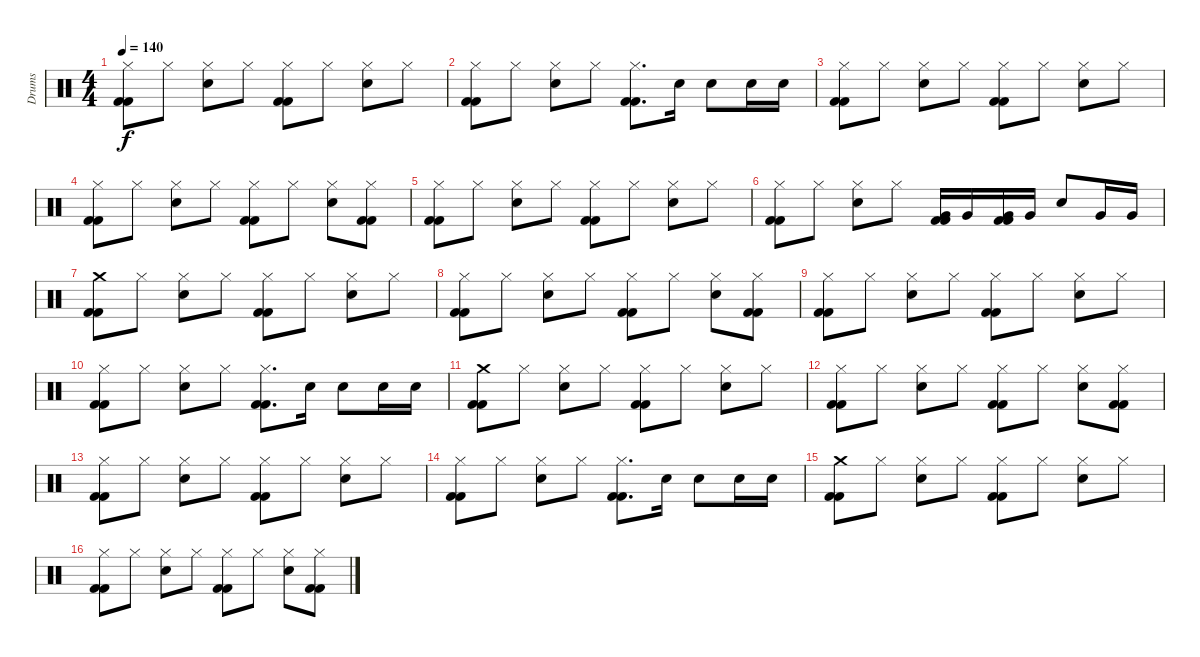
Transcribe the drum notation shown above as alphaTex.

\track ("Drums" "Drums") {instrument percussion}
\staff {score}
\articulation defaults
\ts (4 4)
\tempo 140
\clef neutral
\ks c
("Hi-Hat (closed)" "Kick (hit) 2" "Kick (hit) 2").8{dy f} "Hi-Hat (closed)".8 ("Hi-Hat (closed)" "Electric Snare (hit)").8 "Hi-Hat (closed)".8 ("Hi-Hat (closed)" "Kick (hit) 2" "Kick (hit) 2").8 "Hi-Hat (closed)".8 ("Hi-Hat (closed)" "Electric Snare (hit)").8 "Hi-Hat (closed)".8 |
("Hi-Hat (closed)" "Kick (hit) 2" "Kick (hit) 2").8 "Hi-Hat (closed)".8 ("Hi-Hat (closed)" "Electric Snare (hit)").8 "Hi-Hat (closed)".8 ("Hi-Hat (closed)" "Kick (hit) 2" "Kick (hit) 2").8{d} "Electric Snare (hit)".16 "Electric Snare (hit)".8 "Electric Snare (hit)".16 "Electric Snare (hit)".16 |
("Hi-Hat (closed)" "Kick (hit) 2" "Kick (hit) 2").8 "Hi-Hat (closed)".8 ("Hi-Hat (closed)" "Electric Snare (hit)").8 "Hi-Hat (closed)".8 ("Hi-Hat (closed)" "Kick (hit) 2" "Kick (hit) 2").8 "Hi-Hat (closed)".8 ("Hi-Hat (closed)" "Electric Snare (hit)").8 "Hi-Hat (closed)".8 |
("Hi-Hat (closed)" "Kick (hit) 2" "Kick (hit) 2").8 "Hi-Hat (closed)".8 ("Hi-Hat (closed)" "Electric Snare (hit)").8 "Hi-Hat (closed)".8 ("Hi-Hat (closed)" "Kick (hit) 2" "Kick (hit) 2").8 "Hi-Hat (closed)".8 ("Hi-Hat (closed)" "Electric Snare (hit)").8 ("Hi-Hat (closed)" "Kick (hit) 2" "Kick (hit) 2").8 |
("Hi-Hat (closed)" "Kick (hit) 2" "Kick (hit) 2").8 "Hi-Hat (closed)".8 ("Hi-Hat (closed)" "Electric Snare (hit)").8 "Hi-Hat (closed)".8 ("Hi-Hat (closed)" "Kick (hit) 2" "Kick (hit) 2").8 "Hi-Hat (closed)".8 ("Hi-Hat (closed)" "Electric Snare (hit)").8 "Hi-Hat (closed)".8 |
("Hi-Hat (closed)" "Kick (hit) 2" "Kick (hit) 2").8 "Hi-Hat (closed)".8 ("Hi-Hat (closed)" "Electric Snare (hit)").8 "Hi-Hat (closed)".8 ("Very Low Tom (hit)" "Kick (hit) 2" "Kick (hit) 2").16 "Very Low Tom (hit)".16 ("Very Low Tom (hit)" "Kick (hit) 2" "Kick (hit) 2").16 "Very Low Tom (hit)".16 "Electric Snare (hit)".8 "Very Low Tom (hit)".16 "Very Low Tom (hit)".16 |
("Crash medium (hit)" "Kick (hit) 2" "Kick (hit) 2").8 "Hi-Hat (closed)".8 ("Hi-Hat (closed)" "Electric Snare (hit)").8 "Hi-Hat (closed)".8 ("Hi-Hat (closed)" "Kick (hit) 2" "Kick (hit) 2").8 "Hi-Hat (closed)".8 ("Hi-Hat (closed)" "Electric Snare (hit)").8 "Hi-Hat (closed)".8 |
("Hi-Hat (closed)" "Kick (hit) 2" "Kick (hit) 2").8 "Hi-Hat (closed)".8 ("Hi-Hat (closed)" "Electric Snare (hit)").8 "Hi-Hat (closed)".8 ("Hi-Hat (closed)" "Kick (hit) 2" "Kick (hit) 2").8 "Hi-Hat (closed)".8 ("Hi-Hat (closed)" "Electric Snare (hit)").8 ("Hi-Hat (closed)" "Kick (hit) 2" "Kick (hit) 2").8 |
("Hi-Hat (closed)" "Kick (hit) 2" "Kick (hit) 2").8 "Hi-Hat (closed)".8 ("Hi-Hat (closed)" "Electric Snare (hit)").8 "Hi-Hat (closed)".8 ("Hi-Hat (closed)" "Kick (hit) 2" "Kick (hit) 2").8 "Hi-Hat (closed)".8 ("Hi-Hat (closed)" "Electric Snare (hit)").8 "Hi-Hat (closed)".8 |
("Hi-Hat (closed)" "Kick (hit) 2" "Kick (hit) 2").8 "Hi-Hat (closed)".8 ("Hi-Hat (closed)" "Electric Snare (hit)").8 "Hi-Hat (closed)".8 ("Hi-Hat (closed)" "Kick (hit) 2" "Kick (hit) 2").8{d} "Electric Snare (hit)".16 "Electric Snare (hit)".8 "Electric Snare (hit)".16 "Electric Snare (hit)".16 |
("Crash medium (hit)" "Kick (hit) 2" "Kick (hit) 2").8 "Hi-Hat (closed)".8 ("Hi-Hat (closed)" "Electric Snare (hit)").8 "Hi-Hat (closed)".8 ("Hi-Hat (closed)" "Kick (hit) 2" "Kick (hit) 2").8 "Hi-Hat (closed)".8 ("Hi-Hat (closed)" "Electric Snare (hit)").8 "Hi-Hat (closed)".8 |
("Hi-Hat (closed)" "Kick (hit) 2" "Kick (hit) 2").8 "Hi-Hat (closed)".8 ("Hi-Hat (closed)" "Electric Snare (hit)").8 "Hi-Hat (closed)".8 ("Hi-Hat (closed)" "Kick (hit) 2" "Kick (hit) 2").8 "Hi-Hat (closed)".8 ("Hi-Hat (closed)" "Electric Snare (hit)").8 ("Hi-Hat (closed)" "Kick (hit) 2" "Kick (hit) 2").8 |
("Hi-Hat (closed)" "Kick (hit) 2" "Kick (hit) 2").8 "Hi-Hat (closed)".8 ("Hi-Hat (closed)" "Electric Snare (hit)").8 "Hi-Hat (closed)".8 ("Hi-Hat (closed)" "Kick (hit) 2" "Kick (hit) 2").8 "Hi-Hat (closed)".8 ("Hi-Hat (closed)" "Electric Snare (hit)").8 "Hi-Hat (closed)".8 |
("Hi-Hat (closed)" "Kick (hit) 2" "Kick (hit) 2").8 "Hi-Hat (closed)".8 ("Hi-Hat (closed)" "Electric Snare (hit)").8 "Hi-Hat (closed)".8 ("Hi-Hat (closed)" "Kick (hit) 2" "Kick (hit) 2").8{d} "Electric Snare (hit)".16 "Electric Snare (hit)".8 "Electric Snare (hit)".16 "Electric Snare (hit)".16 |
("Crash medium (hit)" "Kick (hit) 2" "Kick (hit) 2").8 "Hi-Hat (closed)".8 ("Hi-Hat (closed)" "Electric Snare (hit)").8 "Hi-Hat (closed)".8 ("Hi-Hat (closed)" "Kick (hit) 2" "Kick (hit) 2").8 "Hi-Hat (closed)".8 ("Hi-Hat (closed)" "Electric Snare (hit)").8 "Hi-Hat (closed)".8 |
("Hi-Hat (closed)" "Kick (hit) 2" "Kick (hit) 2").8 "Hi-Hat (closed)".8 ("Hi-Hat (closed)" "Electric Snare (hit)").8 "Hi-Hat (closed)".8 ("Hi-Hat (closed)" "Kick (hit) 2" "Kick (hit) 2").8 "Hi-Hat (closed)".8 ("Hi-Hat (closed)" "Electric Snare (hit)").8 ("Hi-Hat (closed)" "Kick (hit) 2" "Kick (hit) 2").8
